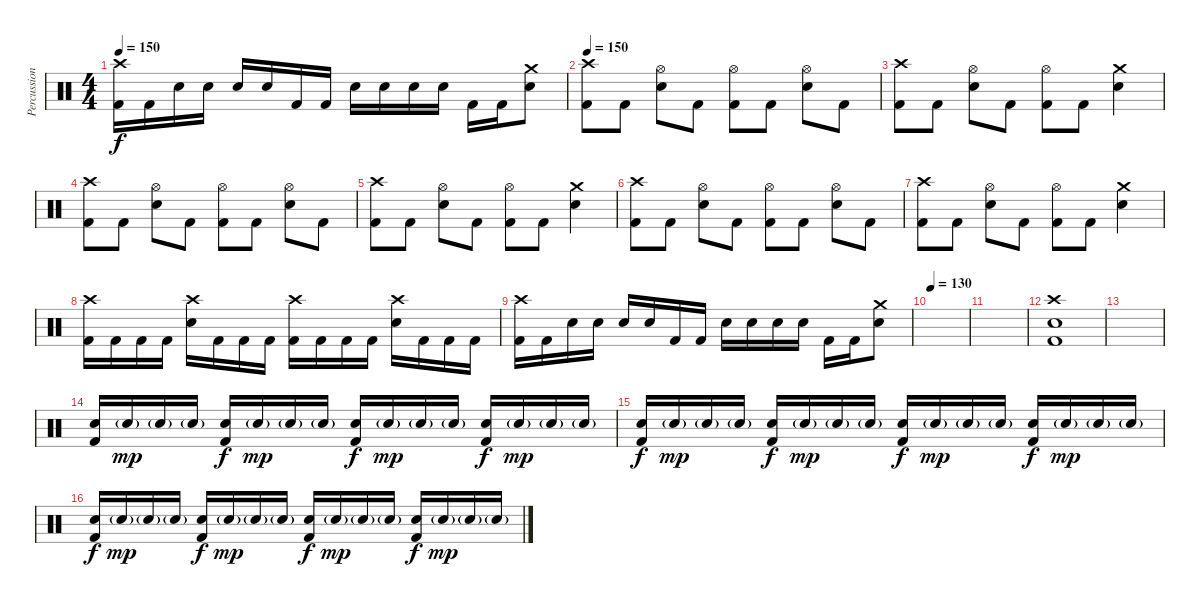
\track ("Percussion" "Percussion") {instrument percussion}
\staff {score}
\articulation defaults
\ts (4 4)
\tempo 150
\clef neutral
\ks c
("Crash high (hit)" "Kick (hit) 2").16{dy f} "Kick (hit) 2".16 "Electric Snare (hit)".16 "Electric Snare (hit)".16 "Electric Snare (hit)".16 "Electric Snare (hit)".16 "Kick (hit) 2".16 "Kick (hit) 2".16 "Electric Snare (hit)".16 "Electric Snare (hit)".16 "Electric Snare (hit)".16 "Electric Snare (hit)".16 "Kick (hit) 2".16 "Kick (hit) 2".16 ("Crash medium (hit)" "Electric Snare (hit)").8 |
\tempo 150
("Crash high (hit)" "Kick (hit) 2").8 "Kick (hit) 2".8 ("Hi-Hat (open)" "Electric Snare (hit)").8 "Kick (hit) 2".8 ("Hi-Hat (open)" "Kick (hit) 2").8 "Kick (hit) 2".8 ("Hi-Hat (open)" "Electric Snare (hit)").8 "Kick (hit) 2".8 |
("Crash high (hit)" "Kick (hit) 2").8 "Kick (hit) 2".8 ("Hi-Hat (open)" "Electric Snare (hit)").8 "Kick (hit) 2".8 ("Hi-Hat (open)" "Kick (hit) 2").8 "Kick (hit) 2".8 ("Crash medium (hit)" "Electric Snare (hit)").4 |
("Crash high (hit)" "Kick (hit) 2").8 "Kick (hit) 2".8 ("Hi-Hat (open)" "Electric Snare (hit)").8 "Kick (hit) 2".8 ("Hi-Hat (open)" "Kick (hit) 2").8 "Kick (hit) 2".8 ("Hi-Hat (open)" "Electric Snare (hit)").8 "Kick (hit) 2".8 |
("Crash high (hit)" "Kick (hit) 2").8 "Kick (hit) 2".8 ("Hi-Hat (open)" "Electric Snare (hit)").8 "Kick (hit) 2".8 ("Hi-Hat (open)" "Kick (hit) 2").8 "Kick (hit) 2".8 ("Crash medium (hit)" "Electric Snare (hit)").4 |
("Crash high (hit)" "Kick (hit) 2").8 "Kick (hit) 2".8 ("Hi-Hat (open)" "Electric Snare (hit)").8 "Kick (hit) 2".8 ("Hi-Hat (open)" "Kick (hit) 2").8 "Kick (hit) 2".8 ("Hi-Hat (open)" "Electric Snare (hit)").8 "Kick (hit) 2".8 |
("Crash high (hit)" "Kick (hit) 2").8 "Kick (hit) 2".8 ("Hi-Hat (open)" "Electric Snare (hit)").8 "Kick (hit) 2".8 ("Hi-Hat (open)" "Kick (hit) 2").8 "Kick (hit) 2".8 ("Crash medium (hit)" "Electric Snare (hit)").4 |
("Crash high (hit)" "Kick (hit) 2").16 "Kick (hit) 2".16 "Kick (hit) 2".16 "Kick (hit) 2".16 ("Crash high (hit)" "Electric Snare (hit)").16 "Kick (hit) 2".16 "Kick (hit) 2".16 "Kick (hit) 2".16 ("Crash high (hit)" "Kick (hit) 2").16 "Kick (hit) 2".16 "Kick (hit) 2".16 "Kick (hit) 2".16 ("Crash high (hit)" "Electric Snare (hit)").16 "Kick (hit) 2".16 "Kick (hit) 2".16 "Kick (hit) 2".16 |
("Crash high (hit)" "Kick (hit) 2").16 "Kick (hit) 2".16 "Electric Snare (hit)".16 "Electric Snare (hit)".16 "Electric Snare (hit)".16 "Electric Snare (hit)".16 "Kick (hit) 2".16 "Kick (hit) 2".16 "Electric Snare (hit)".16 "Electric Snare (hit)".16 "Electric Snare (hit)".16 "Electric Snare (hit)".16 "Kick (hit) 2".16 "Kick (hit) 2".16 ("Crash medium (hit)" "Electric Snare (hit)").8 |
\tempo 130
|
|
("Crash high (hit)" "Electric Snare (hit)" "Kick (hit) 2").1 |
|
("Electric Snare (hit)" "Kick (hit) 2").16 "Electric Snare (hit)"{g}.16{dy mp} "Electric Snare (hit)"{g}.16 "Electric Snare (hit)"{g}.16 ("Electric Snare (hit)" "Kick (hit) 2").16{dy f} "Electric Snare (hit)"{g}.16{dy mp} "Electric Snare (hit)"{g}.16 "Electric Snare (hit)"{g}.16 ("Electric Snare (hit)" "Kick (hit) 2").16{dy f} "Electric Snare (hit)"{g}.16{dy mp} "Electric Snare (hit)"{g}.16 "Electric Snare (hit)"{g}.16 ("Electric Snare (hit)" "Kick (hit) 2").16{dy f} "Electric Snare (hit)"{g}.16{dy mp} "Electric Snare (hit)"{g}.16 "Electric Snare (hit)"{g}.16 |
("Electric Snare (hit)" "Kick (hit) 2").16{dy f} "Electric Snare (hit)"{g}.16{dy mp} "Electric Snare (hit)"{g}.16 "Electric Snare (hit)"{g}.16 ("Electric Snare (hit)" "Kick (hit) 2").16{dy f} "Electric Snare (hit)"{g}.16{dy mp} "Electric Snare (hit)"{g}.16 "Electric Snare (hit)"{g}.16 ("Electric Snare (hit)" "Kick (hit) 2").16{dy f} "Electric Snare (hit)"{g}.16{dy mp} "Electric Snare (hit)"{g}.16 "Electric Snare (hit)"{g}.16 ("Electric Snare (hit)" "Kick (hit) 2").16{dy f} "Electric Snare (hit)"{g}.16{dy mp} "Electric Snare (hit)"{g}.16 "Electric Snare (hit)"{g}.16 |
("Electric Snare (hit)" "Kick (hit) 2").16{dy f} "Electric Snare (hit)"{g}.16{dy mp} "Electric Snare (hit)"{g}.16 "Electric Snare (hit)"{g}.16 ("Electric Snare (hit)" "Kick (hit) 2").16{dy f} "Electric Snare (hit)"{g}.16{dy mp} "Electric Snare (hit)"{g}.16 "Electric Snare (hit)"{g}.16 ("Electric Snare (hit)" "Kick (hit) 2").16{dy f} "Electric Snare (hit)"{g}.16{dy mp} "Electric Snare (hit)"{g}.16 "Electric Snare (hit)"{g}.16 ("Electric Snare (hit)" "Kick (hit) 2").16{dy f} "Electric Snare (hit)"{g}.16{dy mp} "Electric Snare (hit)"{g}.16 "Electric Snare (hit)"{g}.16
